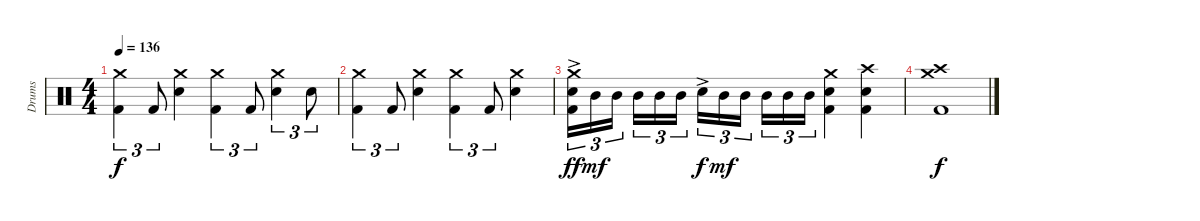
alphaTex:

\track ("Drums" "Drums") {instrument percussion}
\staff {score}
\articulation defaults
\ts (4 4)
\tempo 136
\clef neutral
\ks c
("Crash medium (hit)" "Kick (hit) 2").4{tu (3 2) dy f} "Kick (hit) 2".8{tu (3 2)} ("Crash medium (hit)" "Snare (hit) 2").4 ("Crash medium (hit)" "Kick (hit) 2").4{tu (3 2)} "Kick (hit) 2".8{tu (3 2)} ("Crash medium (hit)" "Snare (hit) 2").4{tu (3 2)} "Snare (hit) 2".8{tu (3 2)} |
("Crash medium (hit)" "Kick (hit) 2").4{tu (3 2)} "Kick (hit) 2".8{tu (3 2)} ("Crash medium (hit)" "Snare (hit) 2").4 ("Crash medium (hit)" "Kick (hit) 2").4{tu (3 2)} "Kick (hit) 2".8{tu (3 2)} ("Crash medium (hit)" "Snare (hit) 2").4 |
("Crash medium (hit)" "Snare (hit) 2"{ac} "Kick (hit) 2").16{tu (3 2) dy ff} "Mid Tom (hit)".16{tu (3 2) dy mf} "Mid Tom (hit)".16{tu (3 2)} "Mid Tom (hit)".16{tu (3 2)} "Mid Tom (hit)".16{tu (3 2)} "Mid Tom (hit)".16{tu (3 2)} "Snare (hit) 2"{ac}.16{tu (3 2) dy f} "Mid Tom (hit)".16{tu (3 2) dy mf} "Mid Tom (hit)".16{tu (3 2)} "Mid Tom (hit)".16{tu (3 2)} "Mid Tom (hit)".16{tu (3 2)} "Mid Tom (hit)".16{tu (3 2)} ("Crash medium (hit)" "Snare (hit) 2" "Kick (hit) 2").4 ("Crash high (hit)" "Snare (hit) 2" "Kick (hit) 2").4 |
("Crash medium (hit)" "Crash high (hit)" "Kick (hit) 2").1{dy f}
